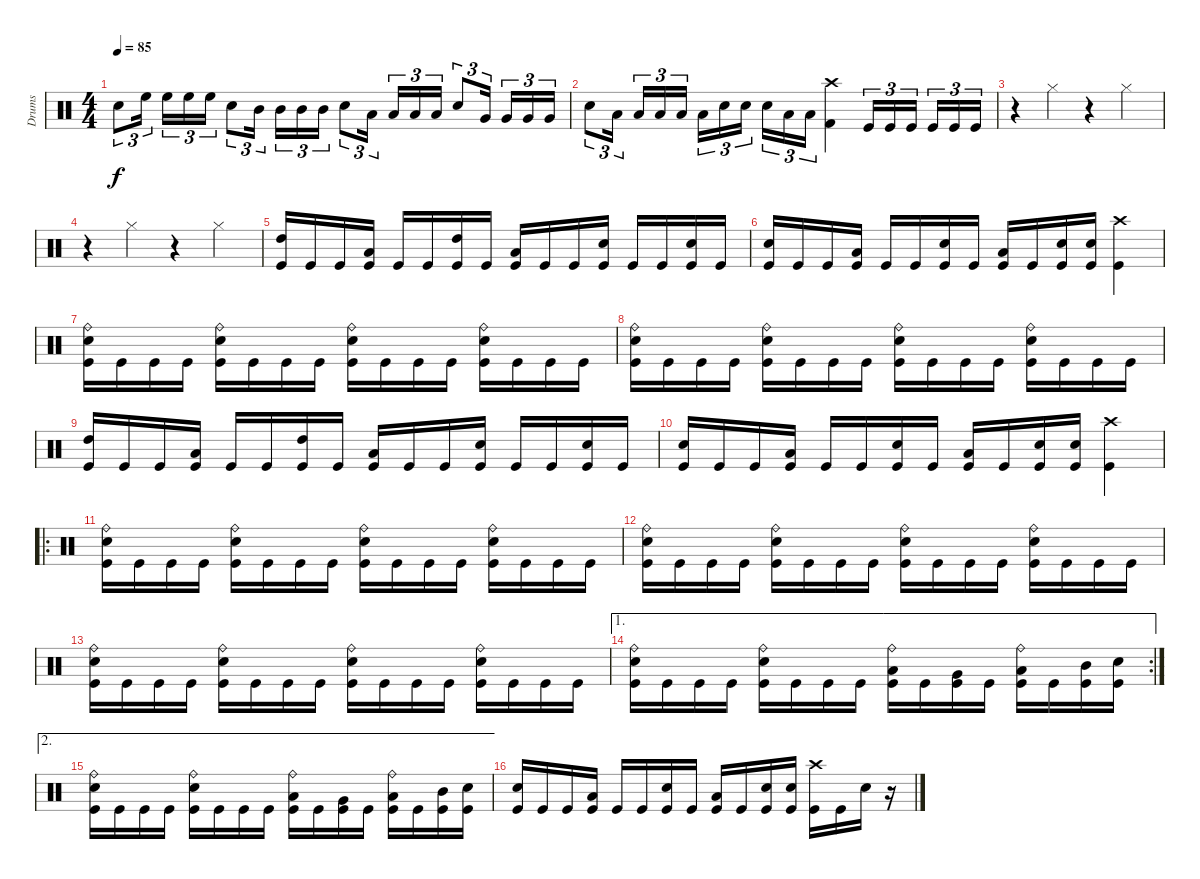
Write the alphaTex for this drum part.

\track ("Drums" "Drums") {instrument percussion}
\staff {score}
\articulation defaults
\ts (4 4)
\tempo 85
\clef neutral
\ks c "Snare (hit) 2".8{tu (3 2) dy f} "High Floor Tom (hit)".16{tu (3 2)} "High Floor Tom (hit)".16{tu (3 2)} "High Floor Tom (hit)".16{tu (3 2)} "High Floor Tom (hit)".16{tu (3 2)} "Snare (hit) 2".8{tu (3 2)} "Mid Tom (hit)".16{tu (3 2)} "Mid Tom (hit)".16{tu (3 2)} "Mid Tom (hit)".16{tu (3 2)} "Mid Tom (hit)".16{tu (3 2)} "Snare (hit) 2".8{tu (3 2)} "Low Tom (hit)".16{tu (3 2)} "Low Tom (hit)".16{tu (3 2)} "Low Tom (hit)".16{tu (3 2)} "Low Tom (hit)".16{tu (3 2)} "Snare (hit) 2".8{tu (3 2)} "Very Low Tom (hit)".16{tu (3 2)} "Very Low Tom (hit)".16{tu (3 2)} "Very Low Tom (hit)".16{tu (3 2)} "Very Low Tom (hit)".16{tu (3 2)}
|
"Snare (hit) 2".8{tu (3 2)} "Low Floor Tom (hit)".16{tu (3 2)} "Low Floor Tom (hit)".16{tu (3 2)} "Low Floor Tom (hit)".16{tu (3 2)} "Low Floor Tom (hit)".16{tu (3 2)} "Low Floor Tom (hit)".16{tu (3 2)} "Snare (hit) 2".16{tu (3 2)} "Snare (hit) 2".16{tu (3 2)} "Snare (hit) 2".16{tu (3 2)} "Low Tom (hit)".16{tu (3 2)} "Low Tom (hit)".16{tu (3 2)} ("Crash high (hit)" "Kick (hit) 2").4 "Kick (hit)".16{tu (3 2)} "Kick (hit)".16{tu (3 2)} "Kick (hit)".16{tu (3 2)} "Kick (hit)".16{tu (3 2)} "Kick (hit)".16{tu (3 2)} "Kick (hit)".16{tu (3 2)} |
r.4 "Hi-Hat (closed)".4 r.4 "Hi-Hat (closed)".4 |
r.4 "Hi-Hat (closed)".4 r.4 "Hi-Hat (closed)".4 |
("High Tom (hit)" "Kick (hit)").16 "Kick (hit)".16 "Kick (hit)".16 ("Low Tom (hit)" "Kick (hit)").16 "Kick (hit)".16 "Kick (hit)".16 ("High Tom (hit)" "Kick (hit)").16 "Kick (hit)".16 ("Low Tom (hit)" "Kick (hit)").16 "Kick (hit)".16 "Kick (hit)".16 ("Snare (hit) 2" "Kick (hit)").16 "Kick (hit)".16 "Kick (hit)".16 ("Snare (hit) 2" "Kick (hit)").16 "Kick (hit)".16 |
("Snare (hit) 2" "Kick (hit)").16 "Kick (hit)".16 "Kick (hit)".16 ("Low Floor Tom (hit)" "Kick (hit)").16 "Kick (hit)".16 "Kick (hit)".16 ("Snare (hit) 2" "Kick (hit)").16 "Kick (hit)".16 ("Low Floor Tom (hit)" "Kick (hit)").16 "Kick (hit)".16 ("Snare (hit) 2" "Kick (hit)").16 ("Snare (hit) 2" "Kick (hit)").16 ("Crash high (hit)" "Kick (hit)").4 |
("Ride (bell)" "Snare (hit) 2" "Kick (hit)").16 "Kick (hit)".16 "Kick (hit)".16 "Kick (hit)".16 ("Ride (bell)" "Snare (hit) 2" "Kick (hit)").16 "Kick (hit)".16 "Kick (hit)".16 "Kick (hit)".16 ("Ride (bell)" "Snare (hit) 2" "Kick (hit)").16 "Kick (hit)".16 "Kick (hit)".16 "Kick (hit)".16 ("Ride (bell)" "Snare (hit) 2" "Kick (hit)").16 "Kick (hit)".16 "Kick (hit)".16 "Kick (hit)".16 |
("Ride (bell)" "Snare (hit) 2" "Kick (hit)").16 "Kick (hit)".16 "Kick (hit)".16 "Kick (hit)".16 ("Ride (bell)" "Snare (hit) 2" "Kick (hit)").16 "Kick (hit)".16 "Kick (hit)".16 "Kick (hit)".16 ("Ride (bell)" "Snare (hit) 2" "Kick (hit)").16 "Kick (hit)".16 "Kick (hit)".16 "Kick (hit)".16 ("Ride (bell)" "Snare (hit) 2" "Kick (hit)").16 "Kick (hit)".16 "Kick (hit)".16 "Kick (hit)".16 |
("High Tom (hit)" "Kick (hit)").16 "Kick (hit)".16 "Kick (hit)".16 ("Low Tom (hit)" "Kick (hit)").16 "Kick (hit)".16 "Kick (hit)".16 ("High Tom (hit)" "Kick (hit)").16 "Kick (hit)".16 ("Low Tom (hit)" "Kick (hit)").16 "Kick (hit)".16 "Kick (hit)".16 ("Snare (hit) 2" "Kick (hit)").16 "Kick (hit)".16 "Kick (hit)".16 ("Snare (hit) 2" "Kick (hit)").16 "Kick (hit)".16 |
("Snare (hit) 2" "Kick (hit)").16 "Kick (hit)".16 "Kick (hit)".16 ("Low Floor Tom (hit)" "Kick (hit)").16 "Kick (hit)".16 "Kick (hit)".16 ("Snare (hit) 2" "Kick (hit)").16 "Kick (hit)".16 ("Low Floor Tom (hit)" "Kick (hit)").16 "Kick (hit)".16 ("Snare (hit) 2" "Kick (hit)").16 ("Snare (hit) 2" "Kick (hit)").16 ("Crash high (hit)" "Kick (hit)").4 |
\ro
("Ride (bell)" "Snare (hit) 2" "Kick (hit)").16 "Kick (hit)".16 "Kick (hit)".16 "Kick (hit)".16 ("Ride (bell)" "Snare (hit) 2" "Kick (hit)").16 "Kick (hit)".16 "Kick (hit)".16 "Kick (hit)".16 ("Ride (bell)" "Snare (hit) 2" "Kick (hit)").16 "Kick (hit)".16 "Kick (hit)".16 "Kick (hit)".16 ("Ride (bell)" "Snare (hit) 2" "Kick (hit)").16 "Kick (hit)".16 "Kick (hit)".16 "Kick (hit)".16 |
("Ride (bell)" "Snare (hit) 2" "Kick (hit)").16 "Kick (hit)".16 "Kick (hit)".16 "Kick (hit)".16 ("Ride (bell)" "Snare (hit) 2" "Kick (hit)").16 "Kick (hit)".16 "Kick (hit)".16 "Kick (hit)".16 ("Ride (bell)" "Snare (hit) 2" "Kick (hit)").16 "Kick (hit)".16 "Kick (hit)".16 "Kick (hit)".16 ("Ride (bell)" "Snare (hit) 2" "Kick (hit)").16 "Kick (hit)".16 "Kick (hit)".16 "Kick (hit)".16 |
("Ride (bell)" "Snare (hit) 2" "Kick (hit)").16 "Kick (hit)".16 "Kick (hit)".16 "Kick (hit)".16 ("Ride (bell)" "Snare (hit) 2" "Kick (hit)").16 "Kick (hit)".16 "Kick (hit)".16 "Kick (hit)".16 ("Ride (bell)" "Snare (hit) 2" "Kick (hit)").16 "Kick (hit)".16 "Kick (hit)".16 "Kick (hit)".16 ("Ride (bell)" "Snare (hit) 2" "Kick (hit)").16 "Kick (hit)".16 "Kick (hit)".16 "Kick (hit)".16 |
\ae 1
\rc 2
("Ride (bell)" "Snare (hit) 2" "Kick (hit)").16 "Kick (hit)".16 "Kick (hit)".16 "Kick (hit)".16 ("Ride (bell)" "Snare (hit) 2" "Kick (hit)").16 "Kick (hit)".16 "Kick (hit)".16 "Kick (hit)".16 ("Ride (bell)" "Low Floor Tom (hit)" "Kick (hit)").16 "Kick (hit)".16 ("Very Low Tom (hit)" "Kick (hit)").16 "Kick (hit)".16 ("Ride (bell)" "Low Tom (hit)" "Kick (hit)").16 "Kick (hit)".16 ("Mid Tom (hit)" "Kick (hit)").16 ("Snare (hit) 2" "Kick (hit)").16 |
\ae 2
("Ride (bell)" "Snare (hit) 2" "Kick (hit)").16 "Kick (hit)".16 "Kick (hit)".16 "Kick (hit)".16 ("Ride (bell)" "Snare (hit) 2" "Kick (hit)").16 "Kick (hit)".16 "Kick (hit)".16 "Kick (hit)".16 ("Ride (bell)" "Low Floor Tom (hit)" "Kick (hit)").16 "Kick (hit)".16 ("Very Low Tom (hit)" "Kick (hit)").16 "Kick (hit)".16 ("Ride (bell)" "Low Tom (hit)" "Kick (hit)").16 "Kick (hit)".16 ("Mid Tom (hit)" "Kick (hit)").16 ("Snare (hit) 2" "Kick (hit)").16 |
("Snare (hit) 2" "Kick (hit)").16 "Kick (hit)".16 "Kick (hit)".16 ("Low Floor Tom (hit)" "Kick (hit)").16 "Kick (hit)".16 "Kick (hit)".16 ("Snare (hit) 2" "Kick (hit)").16 "Kick (hit)".16 ("Low Floor Tom (hit)" "Kick (hit)").16 "Kick (hit)".16 ("Snare (hit) 2" "Kick (hit)").16 ("Snare (hit) 2" "Kick (hit)").16 ("Crash high (hit)" "Kick (hit)").16 "Kick (hit)".16 "Snare (hit) 2".16 r.16
